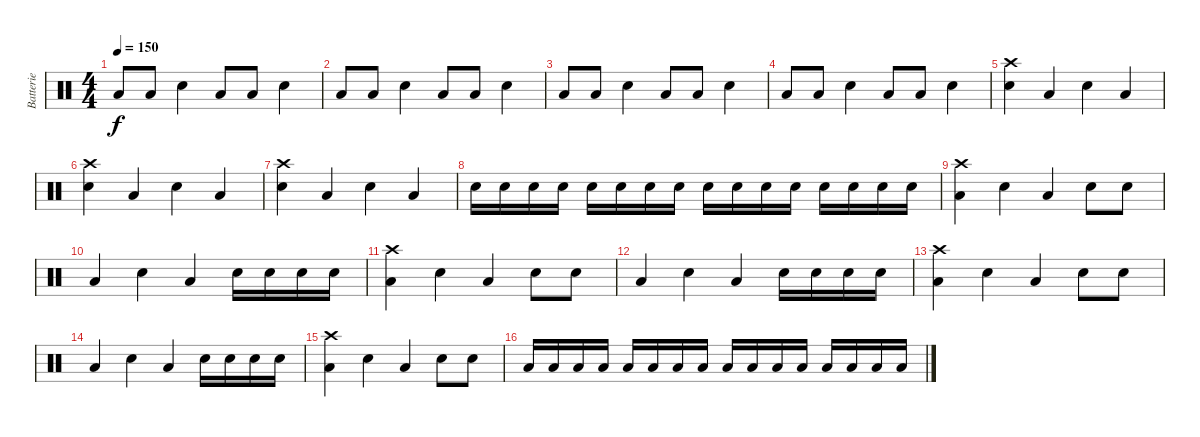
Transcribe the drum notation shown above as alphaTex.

\track ("Batterie" "Batterie") {instrument percussion}
\staff {score}
\articulation defaults
\ts (4 4)
\tempo 150
\clef neutral
\ks c "Low Tom (hit)".8{dy f} "Low Tom (hit)".8 "Snare (hit) 2".4 "Low Tom (hit)".8 "Low Tom (hit)".8 "Snare (hit) 2".4
|
"Low Tom (hit)".8 "Low Tom (hit)".8 "Snare (hit) 2".4 "Low Tom (hit)".8 "Low Tom (hit)".8 "Snare (hit) 2".4 |
"Low Tom (hit)".8 "Low Tom (hit)".8 "Snare (hit) 2".4 "Low Tom (hit)".8 "Low Tom (hit)".8 "Snare (hit) 2".4 |
"Low Tom (hit)".8 "Low Tom (hit)".8 "Snare (hit) 2".4 "Low Tom (hit)".8 "Low Tom (hit)".8 "Snare (hit) 2".4 |
("Crash high (hit)" "Snare (hit) 2").4 "Low Tom (hit)".4 "Snare (hit) 2".4 "Low Tom (hit)".4 |
("Crash high (hit)" "Snare (hit) 2").4 "Low Tom (hit)".4 "Snare (hit) 2".4 "Low Tom (hit)".4 |
("Crash high (hit)" "Snare (hit) 2").4 "Low Tom (hit)".4 "Snare (hit) 2".4 "Low Tom (hit)".4 |
"Snare (hit) 2".16 "Snare (hit) 2".16 "Snare (hit) 2".16 "Snare (hit) 2".16 "Snare (hit) 2".16 "Snare (hit) 2".16 "Snare (hit) 2".16 "Snare (hit) 2".16 "Snare (hit) 2".16 "Snare (hit) 2".16 "Snare (hit) 2".16 "Snare (hit) 2".16 "Snare (hit) 2".16 "Snare (hit) 2".16 "Snare (hit) 2".16 "Snare (hit) 2".16 |
("Crash high (hit)" "Low Tom (hit)").4 "Snare (hit) 2".4 "Low Tom (hit)".4 "Snare (hit) 2".8 "Snare (hit) 2".8 |
"Low Tom (hit)".4 "Snare (hit) 2".4 "Low Tom (hit)".4 "Snare (hit) 2".16 "Snare (hit) 2".16 "Snare (hit) 2".16 "Snare (hit) 2".16 |
("Crash high (hit)" "Low Tom (hit)").4 "Snare (hit) 2".4 "Low Tom (hit)".4 "Snare (hit) 2".8 "Snare (hit) 2".8 |
"Low Tom (hit)".4 "Snare (hit) 2".4 "Low Tom (hit)".4 "Snare (hit) 2".16 "Snare (hit) 2".16 "Snare (hit) 2".16 "Snare (hit) 2".16 |
("Crash high (hit)" "Low Tom (hit)").4 "Snare (hit) 2".4 "Low Tom (hit)".4 "Snare (hit) 2".8 "Snare (hit) 2".8 |
"Low Tom (hit)".4 "Snare (hit) 2".4 "Low Tom (hit)".4 "Snare (hit) 2".16 "Snare (hit) 2".16 "Snare (hit) 2".16 "Snare (hit) 2".16 |
("Crash high (hit)" "Low Tom (hit)").4 "Snare (hit) 2".4 "Low Tom (hit)".4 "Snare (hit) 2".8 "Snare (hit) 2".8 |
"Low Tom (hit)".16 "Low Tom (hit)".16 "Low Tom (hit)".16 "Low Tom (hit)".16 "Low Tom (hit)".16 "Low Tom (hit)".16 "Low Tom (hit)".16 "Low Tom (hit)".16 "Low Tom (hit)".16 "Low Tom (hit)".16 "Low Tom (hit)".16 "Low Tom (hit)".16 "Low Tom (hit)".16 "Low Tom (hit)".16 "Low Tom (hit)".16 "Low Tom (hit)".16
